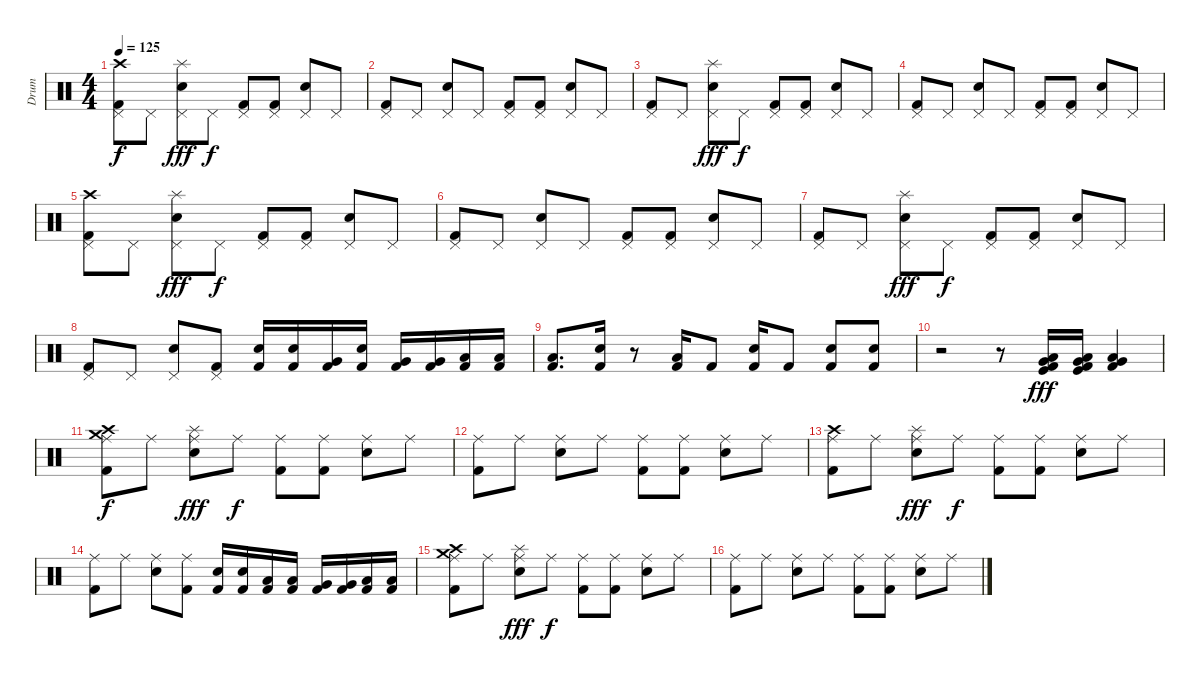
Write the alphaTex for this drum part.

\track ("Drum" "Drum") {instrument percussion}
\staff {score}
\articulation defaults
\ts (4 4)
\tempo 125
\clef neutral
\ks c
("Crash high (hit)" "Pedal Hi-Hat (hit)" "Kick (hit) 2").8{dy f} "Pedal Hi-Hat (hit)".8 ("Electric Snare (hit)" "Splash (hit)" "Pedal Hi-Hat (hit)").8{dy fff} "Pedal Hi-Hat (hit)".8{dy f} ("Pedal Hi-Hat (hit)" "Kick (hit) 2").8 ("Pedal Hi-Hat (hit)" "Kick (hit) 2").8 ("Electric Snare (hit)" "Pedal Hi-Hat (hit)").8 "Pedal Hi-Hat (hit)".8 |
("Pedal Hi-Hat (hit)" "Kick (hit) 2").8 "Pedal Hi-Hat (hit)".8 ("Electric Snare (hit)" "Pedal Hi-Hat (hit)").8 "Pedal Hi-Hat (hit)".8 ("Pedal Hi-Hat (hit)" "Kick (hit) 2").8 ("Pedal Hi-Hat (hit)" "Kick (hit) 2").8 ("Electric Snare (hit)" "Pedal Hi-Hat (hit)").8 "Pedal Hi-Hat (hit)".8 |
("Pedal Hi-Hat (hit)" "Kick (hit) 2").8 "Pedal Hi-Hat (hit)".8 ("Electric Snare (hit)" "Splash (hit)" "Pedal Hi-Hat (hit)").8{dy fff} "Pedal Hi-Hat (hit)".8{dy f} ("Pedal Hi-Hat (hit)" "Kick (hit) 2").8 ("Pedal Hi-Hat (hit)" "Kick (hit) 2").8 ("Electric Snare (hit)" "Pedal Hi-Hat (hit)").8 "Pedal Hi-Hat (hit)".8 |
("Pedal Hi-Hat (hit)" "Kick (hit) 2").8 "Pedal Hi-Hat (hit)".8 ("Electric Snare (hit)" "Pedal Hi-Hat (hit)").8 "Pedal Hi-Hat (hit)".8 ("Pedal Hi-Hat (hit)" "Kick (hit) 2").8 ("Pedal Hi-Hat (hit)" "Kick (hit) 2").8 ("Electric Snare (hit)" "Pedal Hi-Hat (hit)").8 "Pedal Hi-Hat (hit)".8 |
("Crash high (hit)" "Pedal Hi-Hat (hit)" "Kick (hit) 2").8 "Pedal Hi-Hat (hit)".8 ("Electric Snare (hit)" "Splash (hit)" "Pedal Hi-Hat (hit)").8{dy fff} "Pedal Hi-Hat (hit)".8{dy f} ("Pedal Hi-Hat (hit)" "Kick (hit) 2").8 ("Pedal Hi-Hat (hit)" "Kick (hit) 2").8 ("Electric Snare (hit)" "Pedal Hi-Hat (hit)").8 "Pedal Hi-Hat (hit)".8 |
("Pedal Hi-Hat (hit)" "Kick (hit) 2").8 "Pedal Hi-Hat (hit)".8 ("Electric Snare (hit)" "Pedal Hi-Hat (hit)").8 "Pedal Hi-Hat (hit)".8 ("Pedal Hi-Hat (hit)" "Kick (hit) 2").8 ("Pedal Hi-Hat (hit)" "Kick (hit) 2").8 ("Electric Snare (hit)" "Pedal Hi-Hat (hit)").8 "Pedal Hi-Hat (hit)".8 |
("Pedal Hi-Hat (hit)" "Kick (hit) 2").8 "Pedal Hi-Hat (hit)".8 ("Electric Snare (hit)" "Splash (hit)" "Pedal Hi-Hat (hit)").8{dy fff} "Pedal Hi-Hat (hit)".8{dy f} ("Pedal Hi-Hat (hit)" "Kick (hit) 2").8 ("Pedal Hi-Hat (hit)" "Kick (hit) 2").8 ("Electric Snare (hit)" "Pedal Hi-Hat (hit)").8 "Pedal Hi-Hat (hit)".8 |
("Pedal Hi-Hat (hit)" "Kick (hit) 2").8 "Pedal Hi-Hat (hit)".8 ("Electric Snare (hit)" "Pedal Hi-Hat (hit)").8 ("Pedal Hi-Hat (hit)" "Kick (hit) 2").8 ("Electric Snare (hit)" "Kick (hit) 2").16 ("Electric Snare (hit)" "Kick (hit) 2").16 ("Very Low Tom (hit)" "Kick (hit) 2").16 ("Electric Snare (hit)" "Kick (hit) 2").16 ("Very Low Tom (hit)" "Kick (hit) 2").16 ("Very Low Tom (hit)" "Kick (hit) 2").16 ("Low Floor Tom (hit)" "Kick (hit) 2").16 ("Low Floor Tom (hit)" "Kick (hit) 2").16 |
("Low Floor Tom (hit)" "Kick (hit) 2").8{d} ("Electric Snare (hit)" "Kick (hit) 2").16 r.8 ("Low Floor Tom (hit)" "Kick (hit) 2").16 "Kick (hit) 2".8 ("Electric Snare (hit)" "Kick (hit) 2").16 "Kick (hit) 2".8 ("Electric Snare (hit)" "Kick (hit) 2").8 ("Electric Snare (hit)" "Kick (hit) 2").8 |
r.2 r.8 ("Low Floor Tom (hit)" "Very Low Tom (hit)" "Kick (hit)" "Kick (hit) 2").16{dy fff} ("Low Floor Tom (hit)" "Very Low Tom (hit)" "Kick (hit)" "Kick (hit) 2").16 ("Low Floor Tom (hit)" "Very Low Tom (hit)" "Kick (hit) 2").4 |
("Crash high (hit)" "Crash medium (hit)" "Ride (middle)" "Kick (hit) 2").8{dy f} "Ride (middle)".8 ("Electric Snare (hit)" "Splash (hit)" "Ride (middle)").8{dy fff} "Ride (middle)".8{dy f} ("Ride (middle)" "Kick (hit) 2").8 ("Ride (middle)" "Kick (hit) 2").8 ("Electric Snare (hit)" "Ride (middle)").8 "Ride (middle)".8 |
("Ride (middle)" "Kick (hit) 2").8 "Ride (middle)".8 ("Electric Snare (hit)" "Ride (middle)").8 "Ride (middle)".8 ("Ride (middle)" "Kick (hit) 2").8 ("Ride (middle)" "Kick (hit) 2").8 ("Electric Snare (hit)" "Ride (middle)").8 "Ride (middle)".8 |
("Crash high (hit)" "Ride (middle)" "Kick (hit) 2").8 "Ride (middle)".8 ("Electric Snare (hit)" "Splash (hit)" "Ride (middle)").8{dy fff} "Ride (middle)".8{dy f} ("Ride (middle)" "Kick (hit) 2").8 ("Ride (middle)" "Kick (hit) 2").8 ("Electric Snare (hit)" "Ride (middle)").8 "Ride (middle)".8 |
("Ride (middle)" "Kick (hit) 2").8 "Ride (middle)".8 ("Electric Snare (hit)" "Ride (middle)").8 ("Ride (middle)" "Kick (hit) 2").8 ("Electric Snare (hit)" "Kick (hit) 2").16 ("Electric Snare (hit)" "Kick (hit) 2").16 ("Low Tom (hit)" "Kick (hit) 2").16 ("Low Tom (hit)" "Kick (hit) 2").16 ("Very Low Tom (hit)" "Kick (hit) 2").16 ("Very Low Tom (hit)" "Kick (hit) 2").16 ("Low Floor Tom (hit)" "Kick (hit) 2").16 ("Low Floor Tom (hit)" "Kick (hit) 2").16 |
("Crash high (hit)" "Crash medium (hit)" "Ride (middle)" "Kick (hit) 2").8 "Ride (middle)".8 ("Electric Snare (hit)" "Splash (hit)" "Ride (middle)").8{dy fff} "Ride (middle)".8{dy f} ("Ride (middle)" "Kick (hit) 2").8 ("Ride (middle)" "Kick (hit) 2").8 ("Electric Snare (hit)" "Ride (middle)").8 "Ride (middle)".8 |
("Ride (middle)" "Kick (hit) 2").8 "Ride (middle)".8 ("Electric Snare (hit)" "Ride (middle)").8 "Ride (middle)".8 ("Ride (middle)" "Kick (hit) 2").8 ("Ride (middle)" "Kick (hit) 2").8 ("Electric Snare (hit)" "Ride (middle)").8 "Ride (middle)".8
